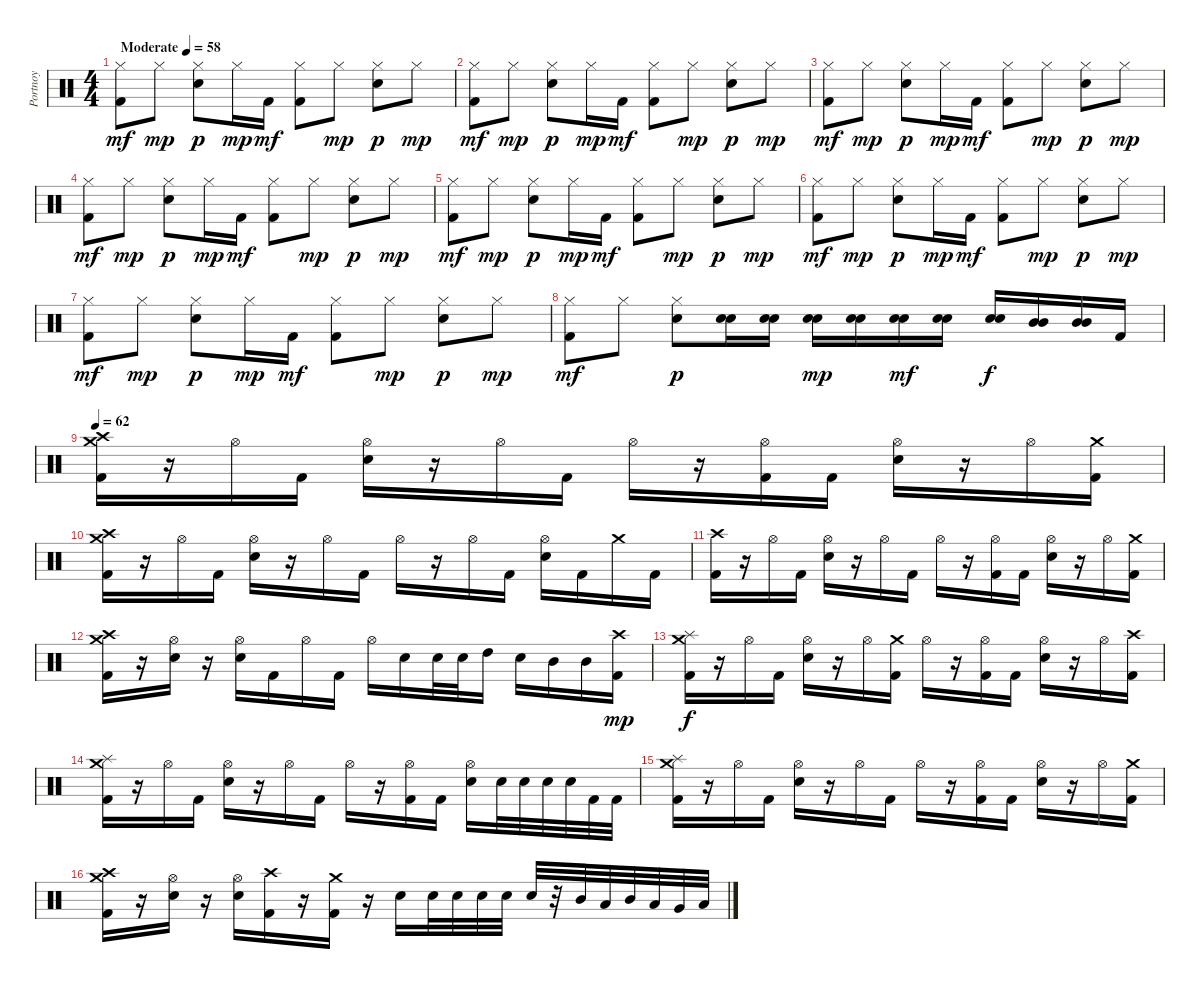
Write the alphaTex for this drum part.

\track ("Portnoy" "Portnoy") {instrument percussion}
\staff {score}
\articulation defaults
\ts (4 4)
\tempo (58 "Moderate")
\clef neutral
\ks c
("Hi-Hat (closed)" "Kick (hit) 2").8{dy mf} "Hi-Hat (closed)".8{dy mp} ("Hi-Hat (closed)" "Electric Snare (hit)").8{dy p} "Hi-Hat (closed)".16{dy mp} "Kick (hit) 2".16{dy mf} ("Hi-Hat (closed)" "Kick (hit) 2").8 "Hi-Hat (closed)".8{dy mp} ("Hi-Hat (closed)" "Electric Snare (hit)").8{dy p} "Hi-Hat (closed)".8{dy mp} |
("Hi-Hat (closed)" "Kick (hit) 2").8{dy mf} "Hi-Hat (closed)".8{dy mp} ("Hi-Hat (closed)" "Electric Snare (hit)").8{dy p} "Hi-Hat (closed)".16{dy mp} "Kick (hit) 2".16{dy mf} ("Hi-Hat (closed)" "Kick (hit) 2").8 "Hi-Hat (closed)".8{dy mp} ("Hi-Hat (closed)" "Electric Snare (hit)").8{dy p} "Hi-Hat (closed)".8{dy mp} |
("Hi-Hat (closed)" "Kick (hit) 2").8{dy mf} "Hi-Hat (closed)".8{dy mp} ("Hi-Hat (closed)" "Electric Snare (hit)").8{dy p} "Hi-Hat (closed)".16{dy mp} "Kick (hit) 2".16{dy mf} ("Hi-Hat (closed)" "Kick (hit) 2").8 "Hi-Hat (closed)".8{dy mp} ("Hi-Hat (closed)" "Electric Snare (hit)").8{dy p} "Hi-Hat (closed)".8{dy mp} |
("Hi-Hat (closed)" "Kick (hit) 2").8{dy mf} "Hi-Hat (closed)".8{dy mp} ("Hi-Hat (closed)" "Electric Snare (hit)").8{dy p} "Hi-Hat (closed)".16{dy mp} "Kick (hit) 2".16{dy mf} ("Hi-Hat (closed)" "Kick (hit) 2").8 "Hi-Hat (closed)".8{dy mp} ("Hi-Hat (closed)" "Electric Snare (hit)").8{dy p} "Hi-Hat (closed)".8{dy mp} |
("Hi-Hat (closed)" "Kick (hit) 2").8{dy mf} "Hi-Hat (closed)".8{dy mp} ("Hi-Hat (closed)" "Electric Snare (hit)").8{dy p} "Hi-Hat (closed)".16{dy mp} "Kick (hit) 2".16{dy mf} ("Hi-Hat (closed)" "Kick (hit) 2").8 "Hi-Hat (closed)".8{dy mp} ("Hi-Hat (closed)" "Electric Snare (hit)").8{dy p} "Hi-Hat (closed)".8{dy mp} |
("Hi-Hat (closed)" "Kick (hit) 2").8{dy mf} "Hi-Hat (closed)".8{dy mp} ("Hi-Hat (closed)" "Electric Snare (hit)").8{dy p} "Hi-Hat (closed)".16{dy mp} "Kick (hit) 2".16{dy mf} ("Hi-Hat (closed)" "Kick (hit) 2").8 "Hi-Hat (closed)".8{dy mp} ("Hi-Hat (closed)" "Electric Snare (hit)").8{dy p} "Hi-Hat (closed)".8{dy mp} |
("Hi-Hat (closed)" "Kick (hit) 2").8{dy mf} "Hi-Hat (closed)".8{dy mp} ("Hi-Hat (closed)" "Electric Snare (hit)").8{dy p} "Hi-Hat (closed)".16{dy mp} "Kick (hit) 2".16{dy mf} ("Hi-Hat (closed)" "Kick (hit) 2").8 "Hi-Hat (closed)".8{dy mp} ("Hi-Hat (closed)" "Electric Snare (hit)").8{dy p} "Hi-Hat (closed)".8{dy mp} |
("Hi-Hat (closed)" "Kick (hit) 2").8{dy mf} "Hi-Hat (closed)".8 ("Hi-Hat (closed)" "Electric Snare (hit)").8{dy p} ("Electric Snare (hit)" "Electric Snare (hit)").16 ("Electric Snare (hit)" "Electric Snare (hit)").16 ("Electric Snare (hit)" "Electric Snare (hit)").16{dy mp} ("Electric Snare (hit)" "Electric Snare (hit)").16 ("Electric Snare (hit)" "Electric Snare (hit)").16{dy mf} ("Electric Snare (hit)" "Electric Snare (hit)").16 ("Electric Snare (hit)" "Electric Snare (hit)").16{dy f} ("Mid Tom (hit)" "Mid Tom (hit)").16 ("Mid Tom (hit)" "Mid Tom (hit)").16 "Kick (hit) 2".16 |
\tempo 62
("Crash medium (hit)" "Crash high (hit)" "Kick (hit) 2").16{volume 16} r.16 "Hi-Hat (open)".16 "Kick (hit) 2".16 ("Hi-Hat (open)" "Electric Snare (hit)").16 r.16 "Hi-Hat (open)".16 "Kick (hit) 2".16 "Hi-Hat (open)".16 r.16 ("Hi-Hat (open)" "Kick (hit) 2").16 "Kick (hit) 2".16 ("Hi-Hat (open)" "Electric Snare (hit)").16 r.16 "Hi-Hat (open)".16 ("Crash medium (hit)" "Kick (hit) 2").16 |
("Crash medium (hit)" "Crash high (hit)" "Kick (hit) 2").16 r.16 "Hi-Hat (open)".16 "Kick (hit) 2".16 ("Hi-Hat (open)" "Electric Snare (hit)").16 r.16 "Hi-Hat (open)".16 "Kick (hit) 2".16 "Hi-Hat (open)".16 r.16 "Hi-Hat (open)".16 "Kick (hit) 2".16 ("Hi-Hat (open)" "Electric Snare (hit)").16 "Kick (hit) 2".16 "Crash medium (hit)".16 "Kick (hit) 2".16 |
("Crash high (hit)" "Kick (hit) 2").16 r.16 "Hi-Hat (open)".16 "Kick (hit) 2".16 ("Hi-Hat (open)" "Electric Snare (hit)").16 r.16 "Hi-Hat (open)".16 "Kick (hit) 2".16 "Hi-Hat (open)".16 r.16 ("Hi-Hat (open)" "Kick (hit) 2").16 "Kick (hit) 2".16 ("Hi-Hat (open)" "Electric Snare (hit)").16 r.16 "Hi-Hat (open)".16 ("Crash medium (hit)" "Kick (hit) 2").16 |
("Crash medium (hit)" "Crash high (hit)" "Kick (hit) 2").16 r.16 ("Hi-Hat (open)" "Electric Snare (hit)").16 r.16 ("Hi-Hat (open)" "Electric Snare (hit)").16 "Kick (hit) 2".16 "Hi-Hat (open)".16 "Kick (hit) 2".16 "Hi-Hat (open)".16 "Electric Snare (hit)".16 "Electric Snare (hit)".32 "Electric Snare (hit)".32 "High Tom (hit)".16 "Electric Snare (hit)".16 "Mid Tom (hit)".16 "Mid Tom (hit)".16 ("Crash high (hit)" "Kick (hit) 2").16{dy mp} |
("Crash medium (hit)" "Splash (hit)" "Kick (hit) 2").16{dy f} r.16 "Hi-Hat (open)".16 "Kick (hit) 2".16 ("Hi-Hat (open)" "Electric Snare (hit)").16 r.16 "Hi-Hat (open)".16 ("Crash medium (hit)" "Kick (hit) 2").16 "Hi-Hat (open)".16 r.16 ("Hi-Hat (open)" "Kick (hit) 2").16 "Kick (hit) 2".16 ("Hi-Hat (open)" "Electric Snare (hit)").16 r.16 "Hi-Hat (open)".16 ("Crash high (hit)" "Kick (hit) 2").16 |
("Crash medium (hit)" "Splash (hit)" "Kick (hit) 2").16 r.16 "Hi-Hat (open)".16 "Kick (hit) 2".16 ("Hi-Hat (open)" "Electric Snare (hit)").16 r.16 "Hi-Hat (open)".16 "Kick (hit) 2".16 "Hi-Hat (open)".16 r.16 ("Hi-Hat (open)" "Kick (hit) 2").16 "Kick (hit) 2".16 ("Hi-Hat (open)" "Electric Snare (hit)").16 "Electric Snare (hit)".32 "Electric Snare (hit)".32 "Electric Snare (hit)".32 "Electric Snare (hit)".32 "Kick (hit) 2".32 "Kick (hit) 2".32 |
("Crash medium (hit)" "Splash (hit)" "Kick (hit) 2").16 r.16 "Hi-Hat (open)".16 "Kick (hit) 2".16 ("Hi-Hat (open)" "Electric Snare (hit)").16 r.16 "Hi-Hat (open)".16 "Kick (hit) 2".16 "Hi-Hat (open)".16 r.16 ("Hi-Hat (open)" "Kick (hit) 2").16 "Kick (hit) 2".16 ("Hi-Hat (open)" "Electric Snare (hit)").16 r.16 "Hi-Hat (open)".16 ("Crash medium (hit)" "Kick (hit) 2").16 |
("Crash medium (hit)" "Crash high (hit)" "Kick (hit) 2").16 r.16 ("Hi-Hat (open)" "Electric Snare (hit)").16 r.16 ("Hi-Hat (open)" "Electric Snare (hit)").16 ("Crash high (hit)" "Kick (hit) 2").16 r.16 ("Crash medium (hit)" "Kick (hit) 2").16 r.16 "Electric Snare (hit)".16 "Electric Snare (hit)".32 "Electric Snare (hit)".32 "Electric Snare (hit)".32 "Electric Snare (hit)".32 "Electric Snare (hit)".32 r.32 "Mid Tom (hit)".32 "Low Tom (hit)".32 "Mid Tom (hit)".32 "Low Tom (hit)".32 "Very Low Tom (hit)".32 "Low Floor Tom (hit)".32
